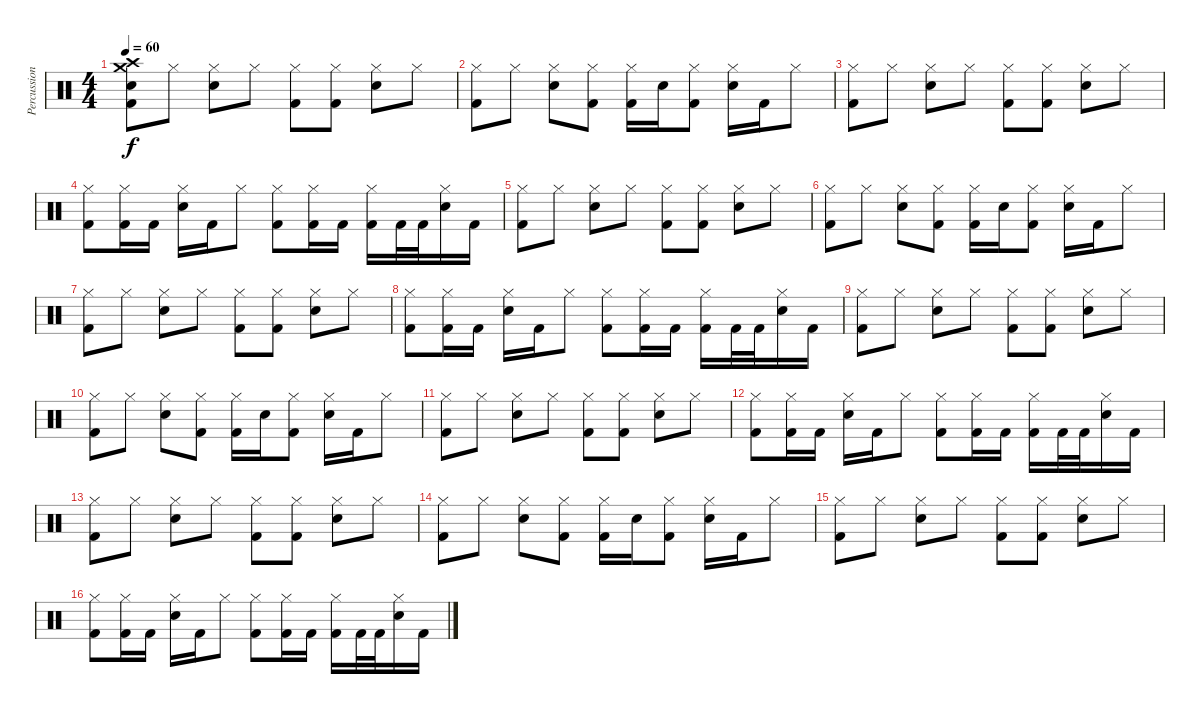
\track ("Percussion" "Percussion") {instrument percussion}
\staff {score}
\articulation defaults
\ts (4 4)
\tempo 60
\clef neutral
\ks c
("Crash medium (hit)" "Crash high (hit)" "Snare (hit) 2" "Kick (hit) 2").8{dy f} "Hi-Hat (closed)".8 ("Hi-Hat (closed)" "Snare (hit) 2").8 "Hi-Hat (closed)".8 ("Hi-Hat (closed)" "Kick (hit) 2").8 ("Hi-Hat (closed)" "Kick (hit) 2").8 ("Hi-Hat (closed)" "Snare (hit) 2").8 "Hi-Hat (closed)".8 |
("Hi-Hat (closed)" "Kick (hit) 2").8 "Hi-Hat (closed)".8 ("Hi-Hat (closed)" "Snare (hit) 2").8 ("Hi-Hat (closed)" "Kick (hit) 2").8 ("Hi-Hat (closed)" "Kick (hit) 2").16 "Snare (hit) 2".16 ("Hi-Hat (closed)" "Kick (hit) 2").8 ("Hi-Hat (closed)" "Snare (hit) 2").16 "Kick (hit) 2".16 "Hi-Hat (closed)".8 |
("Hi-Hat (closed)" "Kick (hit) 2").8 "Hi-Hat (closed)".8 ("Hi-Hat (closed)" "Snare (hit) 2").8 "Hi-Hat (closed)".8 ("Hi-Hat (closed)" "Kick (hit) 2").8 ("Hi-Hat (closed)" "Kick (hit) 2").8 ("Hi-Hat (closed)" "Snare (hit) 2").8 "Hi-Hat (closed)".8 |
("Hi-Hat (closed)" "Kick (hit) 2").8 ("Hi-Hat (closed)" "Kick (hit) 2").16 "Kick (hit) 2".16 ("Hi-Hat (closed)" "Snare (hit) 2").16 "Kick (hit) 2".16 "Hi-Hat (closed)".8 ("Hi-Hat (closed)" "Kick (hit) 2").8 ("Hi-Hat (closed)" "Kick (hit) 2").16 "Kick (hit) 2".16 ("Hi-Hat (closed)" "Kick (hit) 2").16 "Kick (hit) 2".32 "Kick (hit) 2".32 ("Hi-Hat (closed)" "Snare (hit) 2").16 "Kick (hit) 2".16 |
("Hi-Hat (closed)" "Kick (hit) 2").8 "Hi-Hat (closed)".8 ("Hi-Hat (closed)" "Snare (hit) 2").8 "Hi-Hat (closed)".8 ("Hi-Hat (closed)" "Kick (hit) 2").8 ("Hi-Hat (closed)" "Kick (hit) 2").8 ("Hi-Hat (closed)" "Snare (hit) 2").8 "Hi-Hat (closed)".8 |
("Hi-Hat (closed)" "Kick (hit) 2").8 "Hi-Hat (closed)".8 ("Hi-Hat (closed)" "Snare (hit) 2").8 ("Hi-Hat (closed)" "Kick (hit) 2").8 ("Hi-Hat (closed)" "Kick (hit) 2").16 "Snare (hit) 2".16 ("Hi-Hat (closed)" "Kick (hit) 2").8 ("Hi-Hat (closed)" "Snare (hit) 2").16 "Kick (hit) 2".16 "Hi-Hat (closed)".8 |
("Hi-Hat (closed)" "Kick (hit) 2").8 "Hi-Hat (closed)".8 ("Hi-Hat (closed)" "Snare (hit) 2").8 "Hi-Hat (closed)".8 ("Hi-Hat (closed)" "Kick (hit) 2").8 ("Hi-Hat (closed)" "Kick (hit) 2").8 ("Hi-Hat (closed)" "Snare (hit) 2").8 "Hi-Hat (closed)".8 |
("Hi-Hat (closed)" "Kick (hit) 2").8 ("Hi-Hat (closed)" "Kick (hit) 2").16 "Kick (hit) 2".16 ("Hi-Hat (closed)" "Snare (hit) 2").16 "Kick (hit) 2".16 "Hi-Hat (closed)".8 ("Hi-Hat (closed)" "Kick (hit) 2").8 ("Hi-Hat (closed)" "Kick (hit) 2").16 "Kick (hit) 2".16 ("Hi-Hat (closed)" "Kick (hit) 2").16 "Kick (hit) 2".32 "Kick (hit) 2".32 ("Hi-Hat (closed)" "Snare (hit) 2").16 "Kick (hit) 2".16 |
("Hi-Hat (closed)" "Kick (hit) 2").8 "Hi-Hat (closed)".8 ("Hi-Hat (closed)" "Snare (hit) 2").8 "Hi-Hat (closed)".8 ("Hi-Hat (closed)" "Kick (hit) 2").8 ("Hi-Hat (closed)" "Kick (hit) 2").8 ("Hi-Hat (closed)" "Snare (hit) 2").8 "Hi-Hat (closed)".8 |
("Hi-Hat (closed)" "Kick (hit) 2").8 "Hi-Hat (closed)".8 ("Hi-Hat (closed)" "Snare (hit) 2").8 ("Hi-Hat (closed)" "Kick (hit) 2").8 ("Hi-Hat (closed)" "Kick (hit) 2").16 "Snare (hit) 2".16 ("Hi-Hat (closed)" "Kick (hit) 2").8 ("Hi-Hat (closed)" "Snare (hit) 2").16 "Kick (hit) 2".16 "Hi-Hat (closed)".8 |
("Hi-Hat (closed)" "Kick (hit) 2").8 "Hi-Hat (closed)".8 ("Hi-Hat (closed)" "Snare (hit) 2").8 "Hi-Hat (closed)".8 ("Hi-Hat (closed)" "Kick (hit) 2").8 ("Hi-Hat (closed)" "Kick (hit) 2").8 ("Hi-Hat (closed)" "Snare (hit) 2").8 "Hi-Hat (closed)".8 |
("Hi-Hat (closed)" "Kick (hit) 2").8 ("Hi-Hat (closed)" "Kick (hit) 2").16 "Kick (hit) 2".16 ("Hi-Hat (closed)" "Snare (hit) 2").16 "Kick (hit) 2".16 "Hi-Hat (closed)".8 ("Hi-Hat (closed)" "Kick (hit) 2").8 ("Hi-Hat (closed)" "Kick (hit) 2").16 "Kick (hit) 2".16 ("Hi-Hat (closed)" "Kick (hit) 2").16 "Kick (hit) 2".32 "Kick (hit) 2".32 ("Hi-Hat (closed)" "Snare (hit) 2").16 "Kick (hit) 2".16 |
("Hi-Hat (closed)" "Kick (hit) 2").8 "Hi-Hat (closed)".8 ("Hi-Hat (closed)" "Snare (hit) 2").8 "Hi-Hat (closed)".8 ("Hi-Hat (closed)" "Kick (hit) 2").8 ("Hi-Hat (closed)" "Kick (hit) 2").8 ("Hi-Hat (closed)" "Snare (hit) 2").8 "Hi-Hat (closed)".8 |
("Hi-Hat (closed)" "Kick (hit) 2").8 "Hi-Hat (closed)".8 ("Hi-Hat (closed)" "Snare (hit) 2").8 ("Hi-Hat (closed)" "Kick (hit) 2").8 ("Hi-Hat (closed)" "Kick (hit) 2").16 "Snare (hit) 2".16 ("Hi-Hat (closed)" "Kick (hit) 2").8 ("Hi-Hat (closed)" "Snare (hit) 2").16 "Kick (hit) 2".16 "Hi-Hat (closed)".8 |
("Hi-Hat (closed)" "Kick (hit) 2").8 "Hi-Hat (closed)".8 ("Hi-Hat (closed)" "Snare (hit) 2").8 "Hi-Hat (closed)".8 ("Hi-Hat (closed)" "Kick (hit) 2").8 ("Hi-Hat (closed)" "Kick (hit) 2").8 ("Hi-Hat (closed)" "Snare (hit) 2").8 "Hi-Hat (closed)".8 |
("Hi-Hat (closed)" "Kick (hit) 2").8 ("Hi-Hat (closed)" "Kick (hit) 2").16 "Kick (hit) 2".16 ("Hi-Hat (closed)" "Snare (hit) 2").16 "Kick (hit) 2".16 "Hi-Hat (closed)".8 ("Hi-Hat (closed)" "Kick (hit) 2").8 ("Hi-Hat (closed)" "Kick (hit) 2").16 "Kick (hit) 2".16 ("Hi-Hat (closed)" "Kick (hit) 2").16 "Kick (hit) 2".32 "Kick (hit) 2".32 ("Hi-Hat (closed)" "Snare (hit) 2").16 "Kick (hit) 2".16
